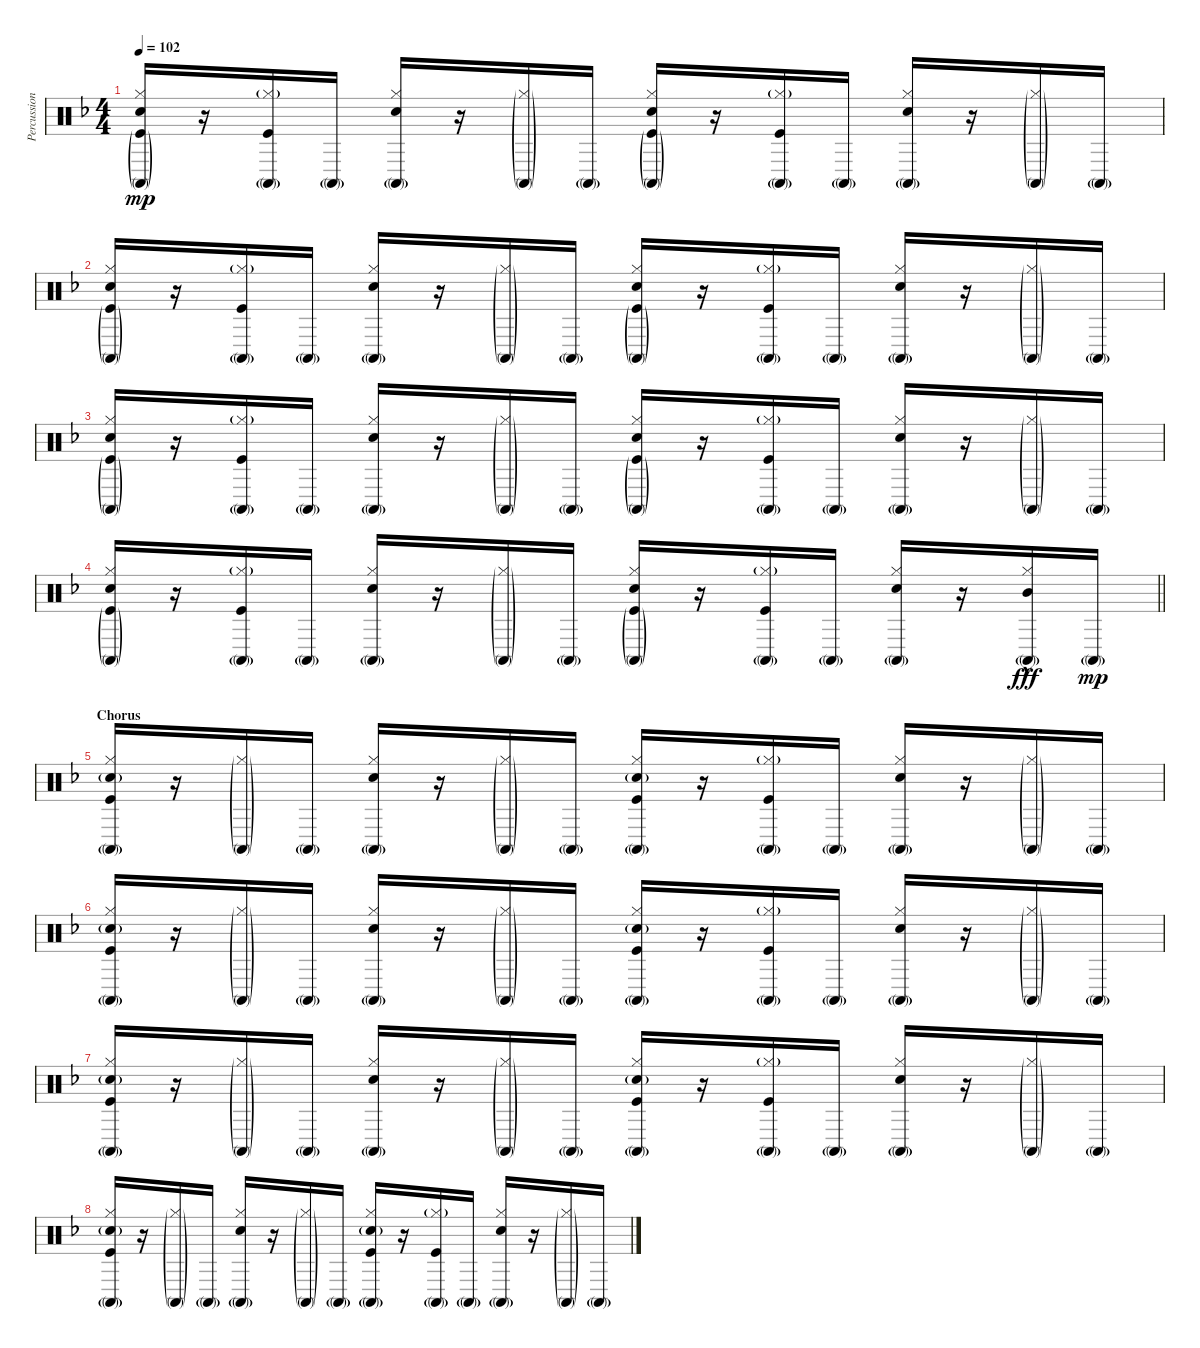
\track ("Percussion" "Percussion") {instrument percussion bank 255}
\staff {score}
\articulation defaults
\ts (4 4)
\tempo 102
\clef neutral
\ks f
("Conga high (mute)"{g} "Hi-Hat (closed)" "Snare (hit) 2" "Kick (hit)"{g}).16{dy mp} r.16 ("Conga high (mute)"{g} "Hi-Hat (closed)"{g} "Kick (hit)").16 "Conga high (mute)"{g}.16 ("Conga high (mute)"{g} "Hi-Hat (closed)" "Snare (hit) 2").16 r.16 ("Conga high (mute)"{g} "Hi-Hat (closed)"{g}).16 "Conga high (mute)"{g}.16 ("Conga high (mute)"{g} "Hi-Hat (closed)" "Snare (hit) 2" "Kick (hit)"{g}).16 r.16 ("Conga high (mute)"{g} "Hi-Hat (closed)"{g} "Kick (hit)").16 "Conga high (mute)"{g}.16 ("Conga high (mute)"{g} "Hi-Hat (closed)" "Snare (hit) 2").16 r.16 ("Conga high (mute)"{g} "Hi-Hat (closed)"{g}).16 "Conga high (mute)"{g}.16 |
("Conga high (mute)"{g} "Hi-Hat (closed)" "Snare (hit) 2" "Kick (hit)"{g}).16 r.16 ("Conga high (mute)"{g} "Hi-Hat (closed)"{g} "Kick (hit)").16 "Conga high (mute)"{g}.16 ("Conga high (mute)"{g} "Hi-Hat (closed)" "Snare (hit) 2").16 r.16 ("Conga high (mute)"{g} "Hi-Hat (closed)"{g}).16 "Conga high (mute)"{g}.16 ("Conga high (mute)"{g} "Hi-Hat (closed)" "Snare (hit) 2" "Kick (hit)"{g}).16 r.16 ("Conga high (mute)"{g} "Hi-Hat (closed)"{g} "Kick (hit)").16 "Conga high (mute)"{g}.16 ("Conga high (mute)"{g} "Hi-Hat (closed)" "Snare (hit) 2").16 r.16 ("Conga high (mute)"{g} "Hi-Hat (closed)"{g}).16 "Conga high (mute)"{g}.16 |
("Conga high (mute)"{g} "Hi-Hat (closed)" "Snare (hit) 2" "Kick (hit)"{g}).16 r.16 ("Conga high (mute)"{g} "Hi-Hat (closed)"{g} "Kick (hit)").16 "Conga high (mute)"{g}.16 ("Conga high (mute)"{g} "Hi-Hat (closed)" "Snare (hit) 2").16 r.16 ("Conga high (mute)"{g} "Hi-Hat (closed)"{g}).16 "Conga high (mute)"{g}.16 ("Conga high (mute)"{g} "Hi-Hat (closed)" "Snare (hit) 2" "Kick (hit)"{g}).16 r.16 ("Conga high (mute)"{g} "Hi-Hat (closed)"{g} "Kick (hit)").16 "Conga high (mute)"{g}.16 ("Conga high (mute)"{g} "Hi-Hat (closed)" "Snare (hit) 2").16 r.16 ("Conga high (mute)"{g} "Hi-Hat (closed)"{g}).16 "Conga high (mute)"{g}.16 |
\barLineRight lightlight
("Conga high (mute)"{g} "Hi-Hat (closed)" "Snare (hit) 2" "Kick (hit)"{g}).16 r.16 ("Conga high (mute)"{g} "Hi-Hat (closed)"{g} "Kick (hit)").16 "Conga high (mute)"{g}.16 ("Conga high (mute)"{g} "Hi-Hat (closed)" "Snare (hit) 2").16 r.16 ("Conga high (mute)"{g} "Hi-Hat (closed)"{g}).16 "Conga high (mute)"{g}.16 ("Conga high (mute)"{g} "Hi-Hat (closed)" "Snare (hit) 2" "Kick (hit)"{g}).16 r.16 ("Conga high (mute)"{g} "Hi-Hat (closed)"{g} "Kick (hit)").16 "Conga high (mute)"{g}.16 ("Conga high (mute)"{g} "Hi-Hat (closed)" "Snare (hit) 2").16 r.16 ("Conga high (mute)"{g} "Hi-Hat (closed)" "Mid Tom (hit)"{hac}).16{dy fff} "Conga high (mute)"{g}.16{dy mp} |
\section ("" "Chorus")
("Conga high (mute)"{g} "Hi-Hat (closed)" "Snare (hit) 2"{g} "Kick (hit)").16 r.16 ("Conga high (mute)"{g} "Hi-Hat (closed)"{g}).16 "Conga high (mute)"{g}.16 ("Conga high (mute)"{g} "Hi-Hat (closed)" "Snare (hit) 2").16 r.16 ("Conga high (mute)"{g} "Hi-Hat (closed)"{g}).16 "Conga high (mute)"{g}.16 ("Conga high (mute)"{g} "Hi-Hat (closed)" "Snare (hit) 2"{g} "Kick (hit)").16 r.16 ("Conga high (mute)"{g} "Hi-Hat (closed)"{g} "Kick (hit)").16 "Conga high (mute)"{g}.16 ("Conga high (mute)"{g} "Hi-Hat (closed)" "Snare (hit) 2").16 r.16 ("Conga high (mute)"{g} "Hi-Hat (closed)"{g}).16 "Conga high (mute)"{g}.16 |
("Conga high (mute)"{g} "Hi-Hat (closed)" "Snare (hit) 2"{g} "Kick (hit)").16 r.16 ("Conga high (mute)"{g} "Hi-Hat (closed)"{g}).16 "Conga high (mute)"{g}.16 ("Conga high (mute)"{g} "Hi-Hat (closed)" "Snare (hit) 2").16 r.16 ("Conga high (mute)"{g} "Hi-Hat (closed)"{g}).16 "Conga high (mute)"{g}.16 ("Conga high (mute)"{g} "Hi-Hat (closed)" "Snare (hit) 2"{g} "Kick (hit)").16 r.16 ("Conga high (mute)"{g} "Hi-Hat (closed)"{g} "Kick (hit)").16 "Conga high (mute)"{g}.16 ("Conga high (mute)"{g} "Hi-Hat (closed)" "Snare (hit) 2").16 r.16 ("Conga high (mute)"{g} "Hi-Hat (closed)"{g}).16 "Conga high (mute)"{g}.16 |
("Conga high (mute)"{g} "Hi-Hat (closed)" "Snare (hit) 2"{g} "Kick (hit)").16 r.16 ("Conga high (mute)"{g} "Hi-Hat (closed)"{g}).16 "Conga high (mute)"{g}.16 ("Conga high (mute)"{g} "Hi-Hat (closed)" "Snare (hit) 2").16 r.16 ("Conga high (mute)"{g} "Hi-Hat (closed)"{g}).16 "Conga high (mute)"{g}.16 ("Conga high (mute)"{g} "Hi-Hat (closed)" "Snare (hit) 2"{g} "Kick (hit)").16 r.16 ("Conga high (mute)"{g} "Hi-Hat (closed)"{g} "Kick (hit)").16 "Conga high (mute)"{g}.16 ("Conga high (mute)"{g} "Hi-Hat (closed)" "Snare (hit) 2").16 r.16 ("Conga high (mute)"{g} "Hi-Hat (closed)"{g}).16 "Conga high (mute)"{g}.16 |
("Conga high (mute)"{g} "Hi-Hat (closed)" "Snare (hit) 2"{g} "Kick (hit)").16 r.16 ("Conga high (mute)"{g} "Hi-Hat (closed)"{g}).16 "Conga high (mute)"{g}.16 ("Conga high (mute)"{g} "Hi-Hat (closed)" "Snare (hit) 2").16 r.16 ("Conga high (mute)"{g} "Hi-Hat (closed)"{g}).16 "Conga high (mute)"{g}.16 ("Conga high (mute)"{g} "Hi-Hat (closed)" "Snare (hit) 2"{g} "Kick (hit)").16 r.16 ("Conga high (mute)"{g} "Hi-Hat (closed)"{g} "Kick (hit)").16 "Conga high (mute)"{g}.16 ("Conga high (mute)"{g} "Hi-Hat (closed)" "Snare (hit) 2").16 r.16 ("Conga high (mute)"{g} "Hi-Hat (closed)"{g}).16 "Conga high (mute)"{g}.16
